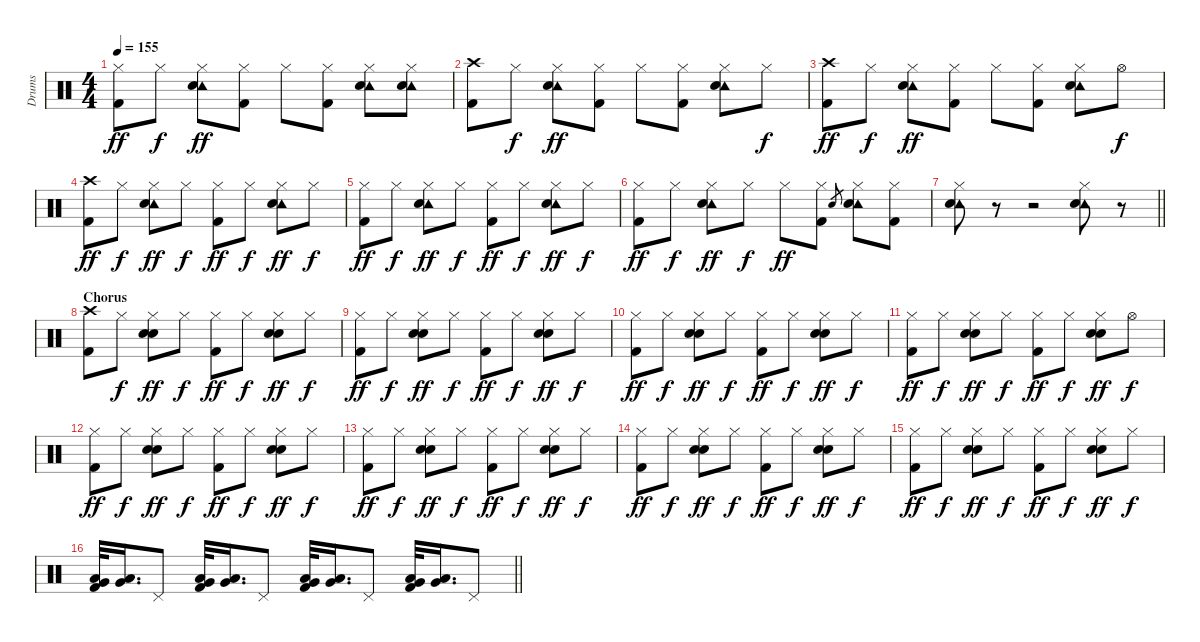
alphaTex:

\track ("Drums" "Drums") {instrument percussion}
\staff {score}
\articulation defaults
\ts (4 4)
\tempo 155
\clef neutral
\ks c
("Hi-Hat (closed)" "Kick (hit) 2").8{dy ff} "Hi-Hat (closed)".8{dy f} ("Tambourine (hit)" "Hi-Hat (closed)" "Snare (hit) 2").8{dy ff} ("Hi-Hat (closed)" "Kick (hit) 2").8 "Hi-Hat (closed)".8 ("Hi-Hat (closed)" "Kick (hit) 2").8 ("Tambourine (hit)" "Hi-Hat (closed)" "Snare (hit) 2").8 ("Tambourine (hit)" "Hi-Hat (closed)" "Snare (hit) 2").8 |
("Crash high (hit)" "Kick (hit) 2").8 "Hi-Hat (closed)".8{dy f} ("Tambourine (hit)" "Hi-Hat (closed)" "Snare (hit) 2").8{dy ff} ("Hi-Hat (closed)" "Kick (hit) 2").8 "Hi-Hat (closed)".8 ("Hi-Hat (closed)" "Kick (hit) 2").8 ("Tambourine (hit)" "Hi-Hat (closed)" "Snare (hit) 2").8 "Hi-Hat (closed)".8{dy f} |
("Crash high (hit)" "Kick (hit) 2").8{dy ff} "Hi-Hat (closed)".8{dy f} ("Tambourine (hit)" "Hi-Hat (closed)" "Snare (hit) 2").8{dy ff} ("Hi-Hat (closed)" "Kick (hit) 2").8 "Hi-Hat (closed)".8 ("Hi-Hat (closed)" "Kick (hit) 2").8 ("Tambourine (hit)" "Hi-Hat (closed)" "Snare (hit) 2").8 "Hi-Hat (open)".8{dy f} |
("Crash high (hit)" "Kick (hit) 2").8{dy ff} "Hi-Hat (closed)".8{dy f} ("Tambourine (hit)" "Hi-Hat (closed)" "Snare (hit) 2").8{dy ff} "Hi-Hat (closed)".8{dy f} ("Hi-Hat (closed)" "Kick (hit) 2").8{dy ff} "Hi-Hat (closed)".8{dy f} ("Tambourine (hit)" "Hi-Hat (closed)" "Snare (hit) 2").8{dy ff} "Hi-Hat (closed)".8{dy f} |
("Hi-Hat (closed)" "Kick (hit) 2").8{dy ff} "Hi-Hat (closed)".8{dy f} ("Tambourine (hit)" "Hi-Hat (closed)" "Snare (hit) 2").8{dy ff} "Hi-Hat (closed)".8{dy f} ("Hi-Hat (closed)" "Kick (hit) 2").8{dy ff} "Hi-Hat (closed)".8{dy f} ("Tambourine (hit)" "Hi-Hat (closed)" "Snare (hit) 2").8{dy ff} "Hi-Hat (closed)".8{dy f} |
("Hi-Hat (closed)" "Kick (hit) 2").8{dy ff} "Hi-Hat (closed)".8{dy f} ("Tambourine (hit)" "Hi-Hat (closed)" "Snare (hit) 2").8{dy ff} "Hi-Hat (closed)".8{dy f} "Hi-Hat (closed)".8{dy ff} ("Hi-Hat (closed)" "Kick (hit) 2").8 "Snare (hit) 2".8{gr} ("Tambourine (hit)" "Hi-Hat (closed)" "Snare (hit) 2").8 ("Hi-Hat (closed)" "Kick (hit) 2").8 |
\barLineRight lightlight
("Tambourine (hit)" "Hi-Hat (closed)" "Snare (hit) 2").8 r.8 r.2 ("Tambourine (hit)" "Hi-Hat (closed)" "Snare (hit) 2").8 r.8 |
\section ("" "Chorus")
("Crash high (hit)" "Kick (hit) 2").8 "Hi-Hat (closed)".8{dy f} ("Hand Clap (hit)" "Hi-Hat (closed)" "Snare (hit) 2").8{dy ff} "Hi-Hat (closed)".8{dy f} ("Hi-Hat (closed)" "Kick (hit) 2").8{dy ff} "Hi-Hat (closed)".8{dy f} ("Hand Clap (hit)" "Hi-Hat (closed)" "Snare (hit) 2").8{dy ff} "Hi-Hat (closed)".8{dy f} |
("Hi-Hat (closed)" "Kick (hit) 2").8{dy ff} "Hi-Hat (closed)".8{dy f} ("Hand Clap (hit)" "Hi-Hat (closed)" "Snare (hit) 2").8{dy ff} "Hi-Hat (closed)".8{dy f} ("Hi-Hat (closed)" "Kick (hit) 2").8{dy ff} "Hi-Hat (closed)".8{dy f} ("Hand Clap (hit)" "Hi-Hat (closed)" "Snare (hit) 2").8{dy ff} "Hi-Hat (closed)".8{dy f} |
("Hi-Hat (closed)" "Kick (hit) 2").8{dy ff} "Hi-Hat (closed)".8{dy f} ("Hand Clap (hit)" "Hi-Hat (closed)" "Snare (hit) 2").8{dy ff} "Hi-Hat (closed)".8{dy f} ("Hi-Hat (closed)" "Kick (hit) 2").8{dy ff} "Hi-Hat (closed)".8{dy f} ("Hand Clap (hit)" "Hi-Hat (closed)" "Snare (hit) 2").8{dy ff} "Hi-Hat (closed)".8{dy f} |
("Hi-Hat (closed)" "Kick (hit) 2").8{dy ff} "Hi-Hat (closed)".8{dy f} ("Hand Clap (hit)" "Hi-Hat (closed)" "Snare (hit) 2").8{dy ff} "Hi-Hat (closed)".8{dy f} ("Hi-Hat (closed)" "Kick (hit) 2").8{dy ff} "Hi-Hat (closed)".8{dy f} ("Hand Clap (hit)" "Hi-Hat (closed)" "Snare (hit) 2").8{dy ff} "Hi-Hat (open)".8{dy f} |
("Hi-Hat (closed)" "Kick (hit) 2").8{dy ff} "Hi-Hat (closed)".8{dy f} ("Hand Clap (hit)" "Hi-Hat (closed)" "Snare (hit) 2").8{dy ff} "Hi-Hat (closed)".8{dy f} ("Hi-Hat (closed)" "Kick (hit) 2").8{dy ff} "Hi-Hat (closed)".8{dy f} ("Hand Clap (hit)" "Hi-Hat (closed)" "Snare (hit) 2").8{dy ff} "Hi-Hat (closed)".8{dy f} |
("Hi-Hat (closed)" "Kick (hit) 2").8{dy ff} "Hi-Hat (closed)".8{dy f} ("Hand Clap (hit)" "Hi-Hat (closed)" "Snare (hit) 2").8{dy ff} "Hi-Hat (closed)".8{dy f} ("Hi-Hat (closed)" "Kick (hit) 2").8{dy ff} "Hi-Hat (closed)".8{dy f} ("Hand Clap (hit)" "Hi-Hat (closed)" "Snare (hit) 2").8{dy ff} "Hi-Hat (closed)".8{dy f} |
("Hi-Hat (closed)" "Kick (hit) 2").8{dy ff} "Hi-Hat (closed)".8{dy f} ("Hand Clap (hit)" "Hi-Hat (closed)" "Snare (hit) 2").8{dy ff} "Hi-Hat (closed)".8{dy f} ("Hi-Hat (closed)" "Kick (hit) 2").8{dy ff} "Hi-Hat (closed)".8{dy f} ("Hand Clap (hit)" "Hi-Hat (closed)" "Snare (hit) 2").8{dy ff} "Hi-Hat (closed)".8{dy f} |
("Hi-Hat (closed)" "Kick (hit) 2").8{dy ff} "Hi-Hat (closed)".8{dy f} ("Hand Clap (hit)" "Hi-Hat (closed)" "Snare (hit) 2").8{dy ff} "Hi-Hat (closed)".8{dy f} ("Hi-Hat (closed)" "Kick (hit) 2").8{dy ff} "Hi-Hat (closed)".8{dy f} ("Hand Clap (hit)" "Hi-Hat (closed)" "Snare (hit) 2").8{dy ff} "Hi-Hat (closed)".8{dy f} |
\barLineRight lightlight
("Low Tom (hit)" "Very Low Tom (hit)" "Kick (hit) 2").32 ("Very Low Tom (hit)" "Low Floor Tom (hit)").16{d} "Pedal Hi-Hat (hit)".8 ("Low Tom (hit)" "Very Low Tom (hit)" "Kick (hit) 2").32 ("Very Low Tom (hit)" "Low Floor Tom (hit)").16{d} "Pedal Hi-Hat (hit)".8 ("Low Tom (hit)" "Very Low Tom (hit)" "Kick (hit) 2").32 ("Very Low Tom (hit)" "Low Floor Tom (hit)").16{d} "Pedal Hi-Hat (hit)".8 ("Low Tom (hit)" "Very Low Tom (hit)" "Kick (hit) 2").32 ("Very Low Tom (hit)" "Low Floor Tom (hit)").16{d} "Pedal Hi-Hat (hit)".8
